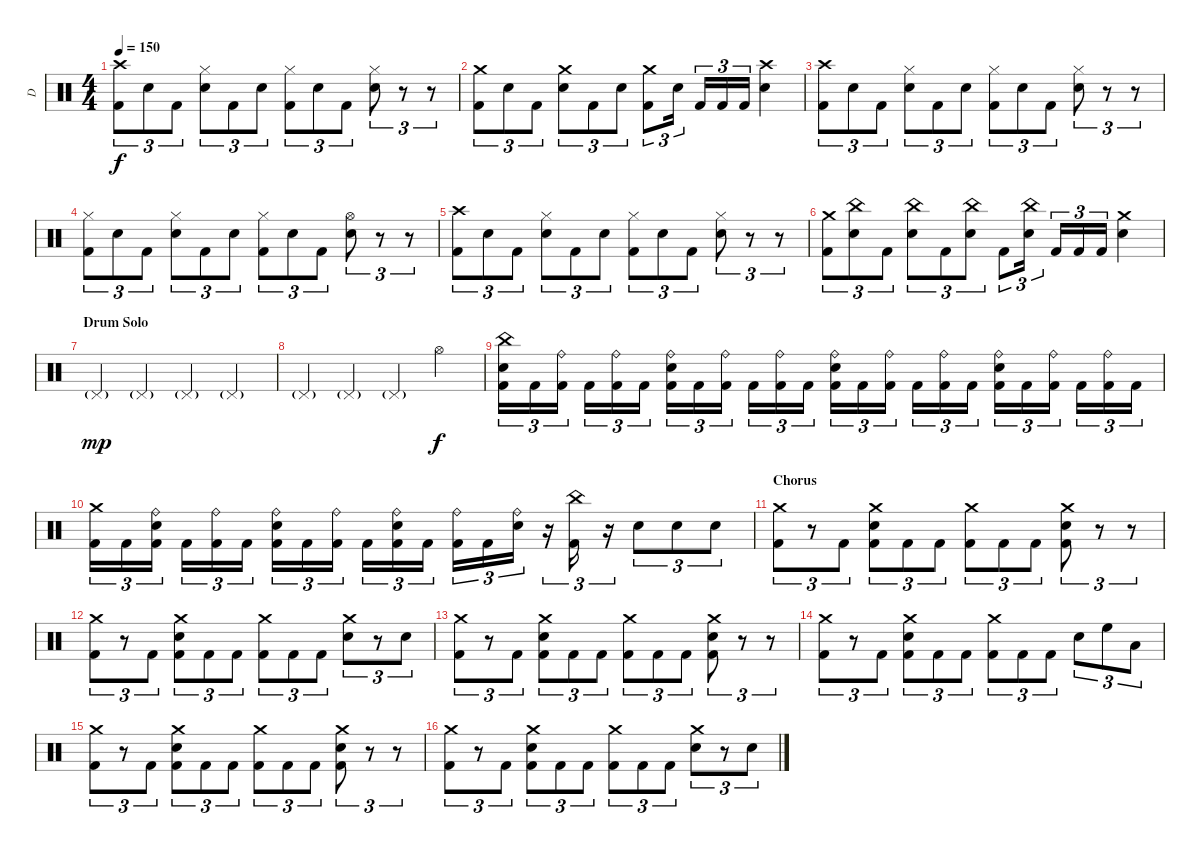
\track ("D" "D") {instrument percussion}
\staff {score}
\articulation defaults
\ts (4 4)
\tempo 150
\clef neutral
\ks c
("Crash high (hit)" "Kick (hit) 2").8{tu (3 2) dy f} "Electric Snare (hit)".8{tu (3 2)} "Kick (hit) 2".8{tu (3 2)} ("Hi-Hat (closed)" "Electric Snare (hit)").8{tu (3 2)} "Kick (hit) 2".8{tu (3 2)} "Electric Snare (hit)".8{tu (3 2)} ("Hi-Hat (closed)" "Kick (hit) 2").8{tu (3 2)} "Electric Snare (hit)".8{tu (3 2)} "Kick (hit) 2".8{tu (3 2)} ("Hi-Hat (closed)" "Electric Snare (hit)").8{tu (3 2)} r.8{tu (3 2)} r.8{tu (3 2)} |
("Crash medium (hit)" "Kick (hit) 2").8{tu (3 2)} "Electric Snare (hit)".8{tu (3 2)} "Kick (hit) 2".8{tu (3 2)} ("Crash medium (hit)" "Electric Snare (hit)").8{tu (3 2)} "Kick (hit) 2".8{tu (3 2)} "Electric Snare (hit)".8{tu (3 2)} ("Crash medium (hit)" "Kick (hit) 2").8{tu (3 2)} "Electric Snare (hit)".16{tu (3 2)} "Kick (hit) 2".16{tu (3 2)} "Kick (hit) 2".16{tu (3 2)} "Kick (hit) 2".16{tu (3 2)} ("Crash high (hit)" "Electric Snare (hit)").4 |
("Crash high (hit)" "Kick (hit) 2").8{tu (3 2)} "Electric Snare (hit)".8{tu (3 2)} "Kick (hit) 2".8{tu (3 2)} ("Hi-Hat (closed)" "Electric Snare (hit)").8{tu (3 2)} "Kick (hit) 2".8{tu (3 2)} "Electric Snare (hit)".8{tu (3 2)} ("Hi-Hat (closed)" "Kick (hit) 2").8{tu (3 2)} "Electric Snare (hit)".8{tu (3 2)} "Kick (hit) 2".8{tu (3 2)} ("Hi-Hat (closed)" "Electric Snare (hit)").8{tu (3 2)} r.8{tu (3 2)} r.8{tu (3 2)} |
("Hi-Hat (closed)" "Kick (hit) 2").8{tu (3 2)} "Electric Snare (hit)".8{tu (3 2)} "Kick (hit) 2".8{tu (3 2)} ("Hi-Hat (closed)" "Electric Snare (hit)").8{tu (3 2)} "Kick (hit) 2".8{tu (3 2)} "Electric Snare (hit)".8{tu (3 2)} ("Hi-Hat (closed)" "Kick (hit) 2").8{tu (3 2)} "Electric Snare (hit)".8{tu (3 2)} "Kick (hit) 2".8{tu (3 2)} ("Hi-Hat (open)" "Electric Snare (hit)").8{tu (3 2)} r.8{tu (3 2)} r.8{tu (3 2)} |
("Crash high (hit)" "Kick (hit) 2").8{tu (3 2)} "Electric Snare (hit)".8{tu (3 2)} "Kick (hit) 2".8{tu (3 2)} ("Hi-Hat (closed)" "Electric Snare (hit)").8{tu (3 2)} "Kick (hit) 2".8{tu (3 2)} "Electric Snare (hit)".8{tu (3 2)} ("Hi-Hat (closed)" "Kick (hit) 2").8{tu (3 2)} "Electric Snare (hit)".8{tu (3 2)} "Kick (hit) 2".8{tu (3 2)} ("Hi-Hat (closed)" "Electric Snare (hit)").8{tu (3 2)} r.8{tu (3 2)} r.8{tu (3 2)} |
("Crash medium (hit)" "Kick (hit) 2").8{tu (3 2)} ("China (hit)" "Electric Snare (hit)").8{tu (3 2)} "Kick (hit) 2".8{tu (3 2)} ("China (hit)" "Electric Snare (hit)").8{tu (3 2)} "Kick (hit) 2".8{tu (3 2)} ("China (hit)" "Electric Snare (hit)").8{tu (3 2)} "Kick (hit) 2".8{tu (3 2)} ("China (hit)" "Electric Snare (hit)").16{tu (3 2)} "Kick (hit) 2".16{tu (3 2)} "Kick (hit) 2".16{tu (3 2)} "Kick (hit) 2".16{tu (3 2)} ("Crash medium (hit)" "Electric Snare (hit)").4 |
\section ("" "Drum Solo")
"Pedal Hi-Hat (hit)"{g}.4{dy mp} "Pedal Hi-Hat (hit)"{g}.4 "Pedal Hi-Hat (hit)"{g}.4 "Pedal Hi-Hat (hit)"{g}.4 |
"Pedal Hi-Hat (hit)"{g}.4 "Pedal Hi-Hat (hit)"{g}.4 "Pedal Hi-Hat (hit)"{g}.4 "Hi-Hat (open)".4{dy f} |
("China (hit)" "Electric Snare (hit)" "Kick (hit) 2").16{tu (3 2)} "Kick (hit) 2".16{tu (3 2)} ("Ride (bell)" "Kick (hit) 2").16{tu (3 2)} "Kick (hit) 2".16{tu (3 2)} ("Ride (bell)" "Kick (hit) 2").16{tu (3 2)} "Kick (hit) 2".16{tu (3 2)} ("Ride (bell)" "Electric Snare (hit)" "Kick (hit) 2").16{tu (3 2)} "Kick (hit) 2".16{tu (3 2)} ("Ride (bell)" "Kick (hit) 2").16{tu (3 2)} "Kick (hit) 2".16{tu (3 2)} ("Ride (bell)" "Kick (hit) 2").16{tu (3 2)} "Kick (hit) 2".16{tu (3 2)} ("Ride (bell)" "Electric Snare (hit)" "Kick (hit) 2").16{tu (3 2)} "Kick (hit) 2".16{tu (3 2)} ("Ride (bell)" "Kick (hit) 2").16{tu (3 2)} "Kick (hit) 2".16{tu (3 2)} ("Ride (bell)" "Kick (hit) 2").16{tu (3 2)} "Kick (hit) 2".16{tu (3 2)} ("Ride (bell)" "Electric Snare (hit)" "Kick (hit) 2").16{tu (3 2)} "Kick (hit) 2".16{tu (3 2)} ("Ride (bell)" "Kick (hit) 2").16{tu (3 2)} "Kick (hit) 2".16{tu (3 2)} ("Ride (bell)" "Kick (hit) 2").16{tu (3 2)} "Kick (hit) 2".16{tu (3 2)} |
("Crash medium (hit)" "Kick (hit) 2").16{tu (3 2)} "Kick (hit) 2".16{tu (3 2)} ("Ride (bell)" "Electric Snare (hit)" "Kick (hit) 2").16{tu (3 2)} "Kick (hit) 2".16{tu (3 2)} ("Ride (bell)" "Kick (hit) 2").16{tu (3 2)} "Kick (hit) 2".16{tu (3 2)} ("Ride (bell)" "Electric Snare (hit)" "Kick (hit) 2").16{tu (3 2)} "Kick (hit) 2".16{tu (3 2)} ("Ride (bell)" "Kick (hit) 2").16{tu (3 2)} "Kick (hit) 2".16{tu (3 2)} ("Ride (bell)" "Electric Snare (hit)" "Kick (hit) 2").16{tu (3 2)} "Kick (hit) 2".16{tu (3 2)} ("Ride (bell)" "Kick (hit) 2").16{tu (3 2)} "Kick (hit) 2".16{tu (3 2)} ("Ride (bell)" "Electric Snare (hit)").16{tu (3 2)} r.16{tu (3 2)} ("China (hit)" "Kick (hit) 2").16{tu (3 2)} r.16{tu (3 2)} "Electric Snare (hit)".8{tu (3 2)} "Electric Snare (hit)".8{tu (3 2)} "Electric Snare (hit)".8{tu (3 2)} |
\section ("" "Chorus")
("Crash medium (hit)" "Kick (hit) 2").8{tu (3 2)} r.8{tu (3 2)} "Kick (hit) 2".8{tu (3 2)} ("Crash medium (hit)" "Electric Snare (hit)" "Kick (hit) 2").8{tu (3 2)} "Kick (hit) 2".8{tu (3 2)} "Kick (hit) 2".8{tu (3 2)} ("Crash medium (hit)" "Kick (hit) 2").8{tu (3 2)} "Kick (hit) 2".8{tu (3 2)} "Kick (hit) 2".8{tu (3 2)} ("Crash medium (hit)" "Electric Snare (hit)" "Kick (hit) 2").8{tu (3 2)} r.8{tu (3 2)} r.8{tu (3 2)} |
("Crash medium (hit)" "Kick (hit) 2").8{tu (3 2)} r.8{tu (3 2)} "Kick (hit) 2".8{tu (3 2)} ("Crash medium (hit)" "Electric Snare (hit)" "Kick (hit) 2").8{tu (3 2)} "Kick (hit) 2".8{tu (3 2)} "Kick (hit) 2".8{tu (3 2)} ("Crash medium (hit)" "Kick (hit) 2").8{tu (3 2)} "Kick (hit) 2".8{tu (3 2)} "Kick (hit) 2".8{tu (3 2)} ("Crash medium (hit)" "Electric Snare (hit)").8{tu (3 2)} r.8{tu (3 2)} "Electric Snare (hit)".8{tu (3 2)} |
("Crash medium (hit)" "Kick (hit) 2").8{tu (3 2)} r.8{tu (3 2)} "Kick (hit) 2".8{tu (3 2)} ("Crash medium (hit)" "Electric Snare (hit)" "Kick (hit) 2").8{tu (3 2)} "Kick (hit) 2".8{tu (3 2)} "Kick (hit) 2".8{tu (3 2)} ("Crash medium (hit)" "Kick (hit) 2").8{tu (3 2)} "Kick (hit) 2".8{tu (3 2)} "Kick (hit) 2".8{tu (3 2)} ("Crash medium (hit)" "Electric Snare (hit)" "Kick (hit) 2").8{tu (3 2)} r.8{tu (3 2)} r.8{tu (3 2)} |
("Crash medium (hit)" "Kick (hit) 2").8{tu (3 2)} r.8{tu (3 2)} "Kick (hit) 2".8{tu (3 2)} ("Crash medium (hit)" "Electric Snare (hit)" "Kick (hit) 2").8{tu (3 2)} "Kick (hit) 2".8{tu (3 2)} "Kick (hit) 2".8{tu (3 2)} ("Crash medium (hit)" "Kick (hit) 2").8{tu (3 2)} "Kick (hit) 2".8{tu (3 2)} "Kick (hit) 2".8{tu (3 2)} "Electric Snare (hit)".8{tu (3 2)} "High Floor Tom (hit)".8{tu (3 2)} "Low Tom (hit)".8{tu (3 2)} |
("Crash medium (hit)" "Kick (hit) 2").8{tu (3 2)} r.8{tu (3 2)} "Kick (hit) 2".8{tu (3 2)} ("Crash medium (hit)" "Electric Snare (hit)" "Kick (hit) 2").8{tu (3 2)} "Kick (hit) 2".8{tu (3 2)} "Kick (hit) 2".8{tu (3 2)} ("Crash medium (hit)" "Kick (hit) 2").8{tu (3 2)} "Kick (hit) 2".8{tu (3 2)} "Kick (hit) 2".8{tu (3 2)} ("Crash medium (hit)" "Electric Snare (hit)" "Kick (hit) 2").8{tu (3 2)} r.8{tu (3 2)} r.8{tu (3 2)} |
("Crash medium (hit)" "Kick (hit) 2").8{tu (3 2)} r.8{tu (3 2)} "Kick (hit) 2".8{tu (3 2)} ("Crash medium (hit)" "Electric Snare (hit)" "Kick (hit) 2").8{tu (3 2)} "Kick (hit) 2".8{tu (3 2)} "Kick (hit) 2".8{tu (3 2)} ("Crash medium (hit)" "Kick (hit) 2").8{tu (3 2)} "Kick (hit) 2".8{tu (3 2)} "Kick (hit) 2".8{tu (3 2)} ("Crash medium (hit)" "Electric Snare (hit)").8{tu (3 2)} r.8{tu (3 2)} "Electric Snare (hit)".8{tu (3 2)}
